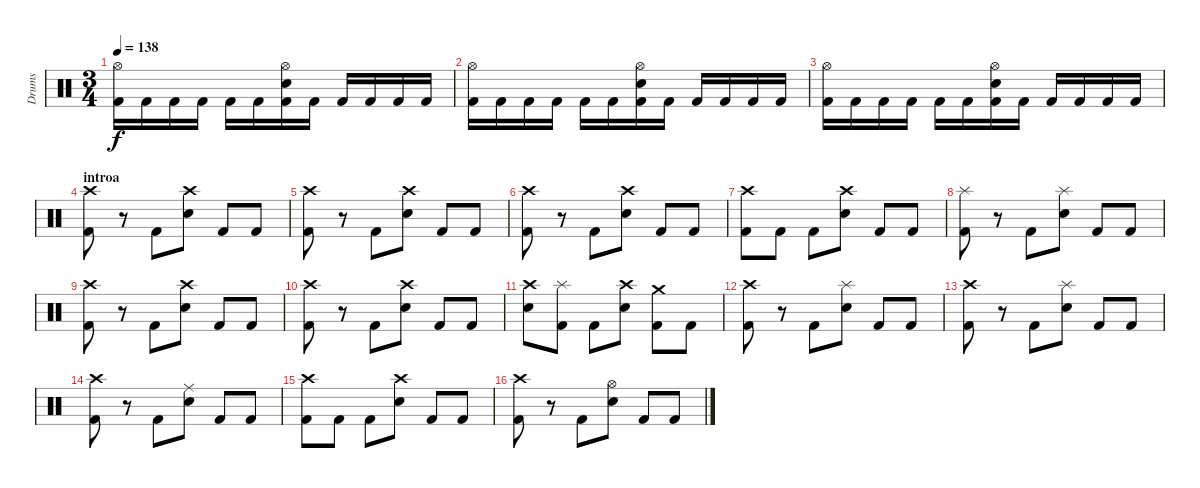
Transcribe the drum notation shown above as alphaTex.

\track ("Drums" "Drums") {instrument percussion}
\staff {score}
\articulation defaults
\ts (3 4)
\tempo 138
\clef neutral
\ks c
("Hi-Hat (open)" "Kick (hit) 2").16{dy f} "Kick (hit) 2".16 "Kick (hit) 2".16 "Kick (hit) 2".16 "Kick (hit) 2".16 "Kick (hit) 2".16 ("Hi-Hat (open)" "Snare (hit) 2" "Kick (hit) 2").16 "Kick (hit) 2".16 "Kick (hit) 2".16 "Kick (hit) 2".16 "Kick (hit) 2".16 "Kick (hit) 2".16 |
("Hi-Hat (open)" "Kick (hit) 2").16 "Kick (hit) 2".16 "Kick (hit) 2".16 "Kick (hit) 2".16 "Kick (hit) 2".16 "Kick (hit) 2".16 ("Hi-Hat (open)" "Snare (hit) 2" "Kick (hit) 2").16 "Kick (hit) 2".16 "Kick (hit) 2".16 "Kick (hit) 2".16 "Kick (hit) 2".16 "Kick (hit) 2".16 |
("Hi-Hat (open)" "Kick (hit) 2").16 "Kick (hit) 2".16 "Kick (hit) 2".16 "Kick (hit) 2".16 "Kick (hit) 2".16 "Kick (hit) 2".16 ("Hi-Hat (open)" "Snare (hit) 2" "Kick (hit) 2").16 "Kick (hit) 2".16 "Kick (hit) 2".16 "Kick (hit) 2".16 "Kick (hit) 2".16 "Kick (hit) 2".16 |
\section ("" "introa")
("Crash high (hit)" "Kick (hit) 2").8 r.8 "Kick (hit) 2".8 ("Crash high (hit)" "Snare (hit) 2").8 "Kick (hit) 2".8 "Kick (hit) 2".8 |
("Crash high (hit)" "Kick (hit) 2").8 r.8 "Kick (hit) 2".8 ("Crash high (hit)" "Snare (hit) 2").8 "Kick (hit) 2".8 "Kick (hit) 2".8 |
("Crash high (hit)" "Kick (hit) 2").8 r.8 "Kick (hit) 2".8 ("Crash high (hit)" "Snare (hit) 2").8 "Kick (hit) 2".8 "Kick (hit) 2".8 |
("Crash high (hit)" "Kick (hit) 2").8 "Kick (hit) 2".8 "Kick (hit) 2".8 ("Crash high (hit)" "Snare (hit) 2").8 "Kick (hit) 2".8 "Kick (hit) 2".8 |
("Splash (hit)" "Kick (hit) 2").8 r.8 "Kick (hit) 2".8 ("Splash (hit)" "Snare (hit) 2").8 "Kick (hit) 2".8 "Kick (hit) 2".8 |
("Crash high (hit)" "Kick (hit) 2").8 r.8 "Kick (hit) 2".8 ("Crash high (hit)" "Snare (hit) 2").8 "Kick (hit) 2".8 "Kick (hit) 2".8 |
("Crash high (hit)" "Kick (hit) 2").8 r.8 "Kick (hit) 2".8 ("Crash high (hit)" "Snare (hit) 2").8 "Kick (hit) 2".8 "Kick (hit) 2".8 |
("Crash high (hit)" "Snare (hit) 2").8 ("Splash (hit)" "Kick (hit) 2").8 "Kick (hit) 2".8 ("Crash high (hit)" "Snare (hit) 2").8 ("Crash medium (hit)" "Kick (hit) 2").8 "Kick (hit) 2".8 |
("Crash high (hit)" "Kick (hit) 2").8 r.8 "Kick (hit) 2".8 ("Splash (hit)" "Snare (hit) 2").8 "Kick (hit) 2".8 "Kick (hit) 2".8 |
("Crash high (hit)" "Kick (hit) 2").8 r.8 "Kick (hit) 2".8 ("Splash (hit)" "Snare (hit) 2").8 "Kick (hit) 2".8 "Kick (hit) 2".8 |
("Crash high (hit)" "Kick (hit) 2").8 r.8 "Kick (hit) 2".8 ("Ride (middle)" "Snare (hit) 2").8 "Kick (hit) 2".8 "Kick (hit) 2".8 |
("Crash high (hit)" "Kick (hit) 2").8 "Kick (hit) 2".8 "Kick (hit) 2".8 ("Crash high (hit)" "Snare (hit) 2").8 "Kick (hit) 2".8 "Kick (hit) 2".8 |
("Crash high (hit)" "Kick (hit) 2").8 r.8 "Kick (hit) 2".8 ("Hi-Hat (open)" "Snare (hit) 2").8 "Kick (hit) 2".8 "Kick (hit) 2".8
